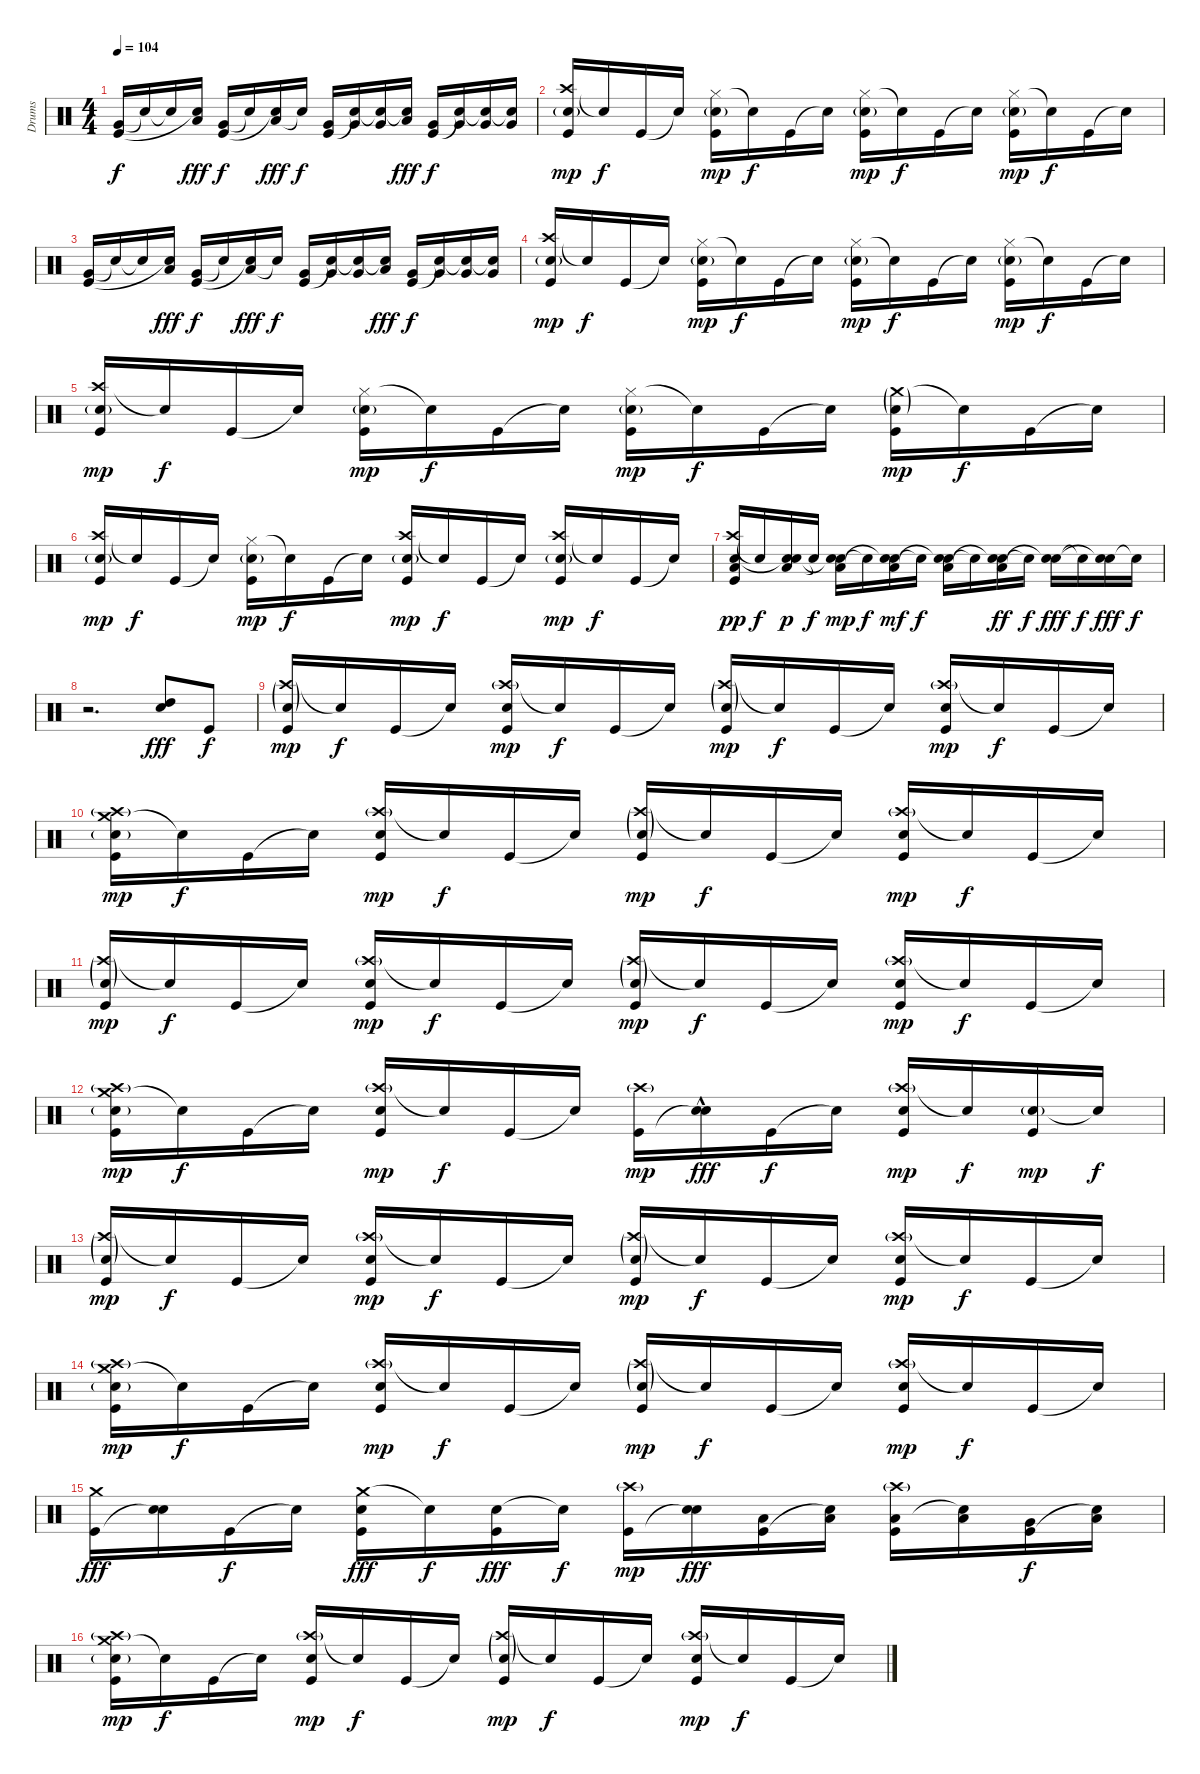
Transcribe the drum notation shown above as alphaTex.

\track ("Drums" "Drums") {instrument percussion}
\staff {score}
\articulation defaults
\ts (4 4)
\tempo 104
\clef neutral
\ks c
("Very Low Tom (hit)" "Kick (hit)").16{dy f} "Snare (hit)"{t}.16 "Snare (hit)"{t}.16 ("Low Tom (hit)" "Snare (hit)"{t}).16{dy fff} ("Very Low Tom (hit)" "Kick (hit)").16{dy f} "Snare (hit)"{t}.16 ("Low Tom (hit)" "Snare (hit)"{t}).16{dy fff} "Snare (hit)"{t}.16{dy f} ("Very Low Tom (hit)" "Kick (hit)").16 ("Very Low Tom (hit)" "Snare (hit)"{t}).16 ("Very Low Tom (hit)" "Snare (hit)"{t}).16 ("Low Tom (hit)" "Snare (hit)"{t}).16{dy fff} ("Very Low Tom (hit)" "Kick (hit)").16{dy f} ("Very Low Tom (hit)" "Snare (hit)"{t}).16 ("Very Low Tom (hit)" "Snare (hit)"{t}).16 ("Very Low Tom (hit)" "Snare (hit)"{t}).16 |
("Crash high (hit)" "Electric Snare (hit)"{g} "Kick (hit)").16{dy mp} "Snare (hit)"{t}.16{dy f} "Kick (hit)".16 "Snare (hit)"{t}.16 ("Hi-Hat (closed)" "Electric Snare (hit)"{g} "Kick (hit)").16{dy mp} "Snare (hit)"{t}.16{dy f} "Kick (hit)".16 "Snare (hit)"{t}.16 ("Hi-Hat (closed)" "Electric Snare (hit)"{g} "Kick (hit)").16{dy mp} "Snare (hit)"{t}.16{dy f} "Kick (hit)".16 "Snare (hit)"{t}.16 ("Hi-Hat (closed)" "Electric Snare (hit)"{g} "Kick (hit)").16{dy mp} "Snare (hit)"{t}.16{dy f} "Kick (hit)".16 "Snare (hit)"{t}.16 |
("Very Low Tom (hit)" "Kick (hit)").16 "Snare (hit)"{t}.16 "Snare (hit)"{t}.16 ("Low Tom (hit)" "Snare (hit)"{t}).16{dy fff} ("Very Low Tom (hit)" "Kick (hit)").16{dy f} "Snare (hit)"{t}.16 ("Low Tom (hit)" "Snare (hit)"{t}).16{dy fff} "Snare (hit)"{t}.16{dy f} ("Very Low Tom (hit)" "Kick (hit)").16 ("Very Low Tom (hit)" "Snare (hit)"{t}).16 ("Very Low Tom (hit)" "Snare (hit)"{t}).16 ("Low Tom (hit)" "Snare (hit)"{t}).16{dy fff} ("Very Low Tom (hit)" "Kick (hit)").16{dy f} ("Very Low Tom (hit)" "Snare (hit)"{t}).16 ("Very Low Tom (hit)" "Snare (hit)"{t}).16 ("Very Low Tom (hit)" "Snare (hit)"{t}).16 |
("Crash high (hit)" "Electric Snare (hit)"{g} "Kick (hit)").16{dy mp} "Snare (hit)"{t}.16{dy f} "Kick (hit)".16 "Snare (hit)"{t}.16 ("Hi-Hat (closed)" "Electric Snare (hit)"{g} "Kick (hit)").16{dy mp} "Snare (hit)"{t}.16{dy f} "Kick (hit)".16 "Snare (hit)"{t}.16 ("Hi-Hat (closed)" "Electric Snare (hit)"{g} "Kick (hit)").16{dy mp} "Snare (hit)"{t}.16{dy f} "Kick (hit)".16 "Snare (hit)"{t}.16 ("Hi-Hat (closed)" "Electric Snare (hit)"{g} "Kick (hit)").16{dy mp} "Snare (hit)"{t}.16{dy f} "Kick (hit)".16 "Snare (hit)"{t}.16 |
("Crash high (hit)" "Electric Snare (hit)"{g} "Kick (hit)").16{dy mp} "Snare (hit)"{t}.16{dy f} "Kick (hit)".16 "Snare (hit)"{t}.16 ("Hi-Hat (closed)" "Electric Snare (hit)"{g} "Kick (hit)").16{dy mp} "Snare (hit)"{t}.16{dy f} "Kick (hit)".16 "Snare (hit)"{t}.16 ("Hi-Hat (closed)" "Electric Snare (hit)"{g} "Kick (hit)").16{dy mp} "Snare (hit)"{t}.16{dy f} "Kick (hit)".16 "Snare (hit)"{t}.16 ("Crash medium (hit)"{g} "Electric Snare (hit)"{g} "Kick (hit)").16{dy mp} "Snare (hit)"{t}.16{dy f} "Kick (hit)".16 "Snare (hit)"{t}.16 |
("Crash high (hit)" "Electric Snare (hit)"{g} "Kick (hit)").16{dy mp} "Snare (hit)"{t}.16{dy f} "Kick (hit)".16 "Snare (hit)"{t}.16 ("Hi-Hat (closed)" "Electric Snare (hit)"{g} "Kick (hit)").16{dy mp} "Snare (hit)"{t}.16{dy f} "Kick (hit)".16 "Snare (hit)"{t}.16 ("Crash high (hit)" "Electric Snare (hit)"{g} "Kick (hit)").16{dy mp} "Snare (hit)"{t}.16{dy f} "Kick (hit)".16 "Snare (hit)"{t}.16 ("Crash high (hit)" "Electric Snare (hit)"{g} "Kick (hit)").16{dy mp} "Snare (hit)"{t}.16{dy f} "Kick (hit)".16 "Snare (hit)"{t}.16 |
("Crash high (hit)" "Low Tom (hit)" "Electric Snare (hit)" "Kick (hit)").16{dy pp} "Snare (hit)"{t}.16{dy f} ("Low Tom (hit)" "Electric Snare (hit)" "Snare (hit)"{t}).16{dy p} "Snare (hit)"{t}.16{dy f} ("Low Tom (hit)" "Electric Snare (hit)" "Snare (hit)"{t}).16{dy mp} "Snare (hit)"{t}.16{dy f} ("Low Tom (hit)" "Electric Snare (hit)" "Snare (hit)"{t}).16{dy mf} "Snare (hit)"{t}.16{dy f} ("Low Tom (hit)" "Electric Snare (hit)" "Snare (hit)"{t}).16 "Snare (hit)"{t}.16 ("Low Tom (hit)" "Electric Snare (hit)" "Snare (hit)"{t}).16{dy ff} "Snare (hit)"{t}.16{dy f} ("Electric Snare (hit)" "Snare (hit)"{t}).16{dy fff} "Snare (hit)"{t}.16{dy f} ("Electric Snare (hit)" "Snare (hit)"{t}).16{dy fff} "Snare (hit)"{t}.16{dy f} |
r.2{d} ("High Tom (hit)" "Electric Snare (hit)").8{dy fff} "Kick (hit)".8{dy f} |
("Crash high (hit)"{g} "Electric Snare (hit)"{g} "Kick (hit)").16{dy mp} "Snare (hit)"{t}.16{dy f} "Kick (hit)".16 "Snare (hit)"{t}.16 ("Crash high (hit)"{g} "Electric Snare (hit)" "Kick (hit)").16{dy mp} "Snare (hit)"{t}.16{dy f} "Kick (hit)".16 "Snare (hit)"{t}.16 ("Crash high (hit)"{g} "Electric Snare (hit)"{g} "Kick (hit)").16{dy mp} "Snare (hit)"{t}.16{dy f} "Kick (hit)".16 "Snare (hit)"{t}.16 ("Crash high (hit)"{g} "Electric Snare (hit)" "Kick (hit)").16{dy mp} "Snare (hit)"{t}.16{dy f} "Kick (hit)".16 "Snare (hit)"{t}.16 |
("Crash medium (hit)" "Crash high (hit)"{g} "Electric Snare (hit)"{g} "Kick (hit)").16{dy mp} "Snare (hit)"{t}.16{dy f} "Kick (hit)".16 "Snare (hit)"{t}.16 ("Crash high (hit)"{g} "Electric Snare (hit)" "Kick (hit)").16{dy mp} "Snare (hit)"{t}.16{dy f} "Kick (hit)".16 "Snare (hit)"{t}.16 ("Crash high (hit)"{g} "Electric Snare (hit)"{g} "Kick (hit)").16{dy mp} "Snare (hit)"{t}.16{dy f} "Kick (hit)".16 "Snare (hit)"{t}.16 ("Crash high (hit)"{g} "Electric Snare (hit)" "Kick (hit)").16{dy mp} "Snare (hit)"{t}.16{dy f} "Kick (hit)".16 "Snare (hit)"{t}.16 |
("Crash high (hit)"{g} "Electric Snare (hit)"{g} "Kick (hit)").16{dy mp} "Snare (hit)"{t}.16{dy f} "Kick (hit)".16 "Snare (hit)"{t}.16 ("Crash high (hit)"{g} "Electric Snare (hit)" "Kick (hit)").16{dy mp} "Snare (hit)"{t}.16{dy f} "Kick (hit)".16 "Snare (hit)"{t}.16 ("Crash high (hit)"{g} "Electric Snare (hit)"{g} "Kick (hit)").16{dy mp} "Snare (hit)"{t}.16{dy f} "Kick (hit)".16 "Snare (hit)"{t}.16 ("Crash high (hit)"{g} "Electric Snare (hit)" "Kick (hit)").16{dy mp} "Snare (hit)"{t}.16{dy f} "Kick (hit)".16 "Snare (hit)"{t}.16 |
("Crash medium (hit)" "Crash high (hit)"{g} "Electric Snare (hit)"{g} "Kick (hit)").16{dy mp} "Snare (hit)"{t}.16{dy f} "Kick (hit)".16 "Snare (hit)"{t}.16 ("Crash high (hit)"{g} "Electric Snare (hit)" "Kick (hit)").16{dy mp} "Snare (hit)"{t}.16{dy f} "Kick (hit)".16 "Snare (hit)"{t}.16 ("Crash high (hit)"{g} "Kick (hit)").16{dy mp} ("Electric Snare (hit)"{hac} "Snare (hit)"{t}).16{dy fff} "Kick (hit)".16{dy f} "Snare (hit)"{t}.16 ("Crash high (hit)"{g} "Electric Snare (hit)" "Kick (hit)").16{dy mp} "Snare (hit)"{t}.16{dy f} ("Electric Snare (hit)"{g} "Kick (hit)").16{dy mp} "Snare (hit)"{t}.16{dy f} |
("Crash high (hit)"{g} "Electric Snare (hit)"{g} "Kick (hit)").16{dy mp} "Snare (hit)"{t}.16{dy f} "Kick (hit)".16 "Snare (hit)"{t}.16 ("Crash high (hit)"{g} "Electric Snare (hit)" "Kick (hit)").16{dy mp} "Snare (hit)"{t}.16{dy f} "Kick (hit)".16 "Snare (hit)"{t}.16 ("Crash high (hit)"{g} "Electric Snare (hit)"{g} "Kick (hit)").16{dy mp} "Snare (hit)"{t}.16{dy f} "Kick (hit)".16 "Snare (hit)"{t}.16 ("Crash high (hit)"{g} "Electric Snare (hit)" "Kick (hit)").16{dy mp} "Snare (hit)"{t}.16{dy f} "Kick (hit)".16 "Snare (hit)"{t}.16 |
("Crash medium (hit)" "Crash high (hit)"{g} "Electric Snare (hit)"{g} "Kick (hit)").16{dy mp} "Snare (hit)"{t}.16{dy f} "Kick (hit)".16 "Snare (hit)"{t}.16 ("Crash high (hit)"{g} "Electric Snare (hit)" "Kick (hit)").16{dy mp} "Snare (hit)"{t}.16{dy f} "Kick (hit)".16 "Snare (hit)"{t}.16 ("Crash high (hit)"{g} "Electric Snare (hit)"{g} "Kick (hit)").16{dy mp} "Snare (hit)"{t}.16{dy f} "Kick (hit)".16 "Snare (hit)"{t}.16 ("Crash high (hit)"{g} "Electric Snare (hit)" "Kick (hit)").16{dy mp} "Snare (hit)"{t}.16{dy f} "Kick (hit)".16 "Snare (hit)"{t}.16 |
("Crash medium (hit)" "Kick (hit)").16{dy fff} ("Electric Snare (hit)" "Snare (hit)"{t}).16 "Kick (hit)".16{dy f} "Snare (hit)"{t}.16 ("Crash medium (hit)" "Electric Snare (hit)" "Kick (hit)").16{dy fff} "Snare (hit)"{t}.16{dy f} ("Electric Snare (hit)" "Kick (hit)").16{dy fff} "Snare (hit)"{t}.16{dy f} ("Crash high (hit)"{g} "Kick (hit)").16{dy mp} ("Electric Snare (hit)" "Snare (hit)"{t}).16{dy fff} ("Low Tom (hit)" "Kick (hit)").16 ("Low Tom (hit)" "Snare (hit)"{t}).16 ("Crash high (hit)"{g} "Low Tom (hit)" "Kick (hit)").16 ("Low Tom (hit)" "Snare (hit)"{t}).16 ("Very Low Tom (hit)" "Kick (hit)").16{dy f} ("Low Floor Tom (hit)" "Snare (hit)"{t}).16 |
("Crash medium (hit)" "Crash high (hit)"{g} "Electric Snare (hit)"{g} "Kick (hit)").16{dy mp} "Snare (hit)"{t}.16{dy f} "Kick (hit)".16 "Snare (hit)"{t}.16 ("Crash high (hit)"{g} "Electric Snare (hit)" "Kick (hit)").16{dy mp} "Snare (hit)"{t}.16{dy f} "Kick (hit)".16 "Snare (hit)"{t}.16 ("Crash high (hit)"{g} "Electric Snare (hit)"{g} "Kick (hit)").16{dy mp} "Snare (hit)"{t}.16{dy f} "Kick (hit)".16 "Snare (hit)"{t}.16 ("Crash high (hit)"{g} "Electric Snare (hit)" "Kick (hit)").16{dy mp} "Snare (hit)"{t}.16{dy f} "Kick (hit)".16 "Snare (hit)"{t}.16
